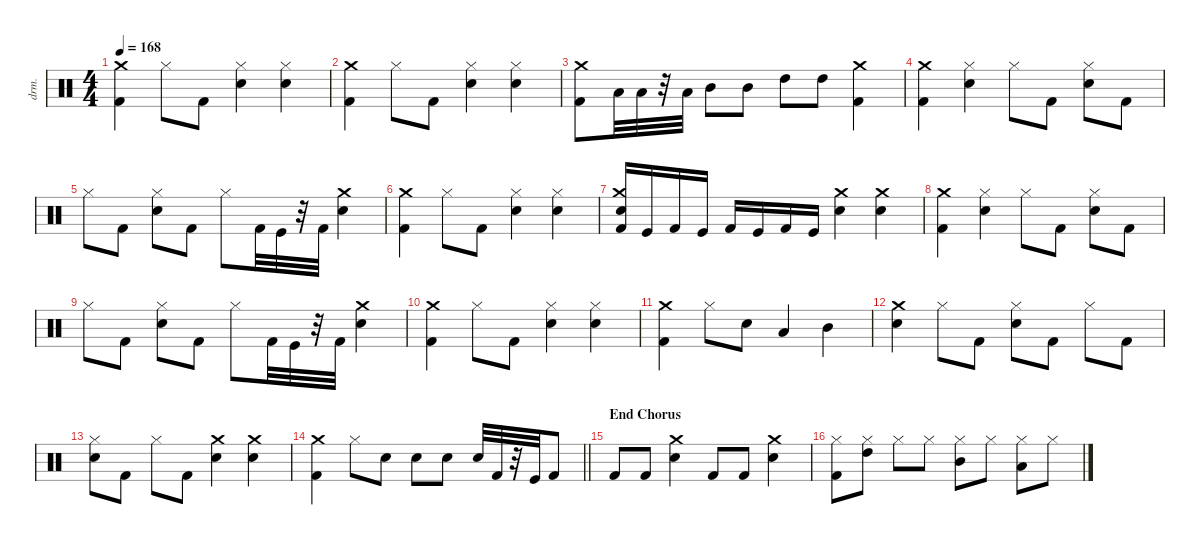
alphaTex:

\defaultSystemsLayout 4
\hideDynamics
\bracketExtendMode nobrackets
\otherSystemsTrackNameOrientation horizontal
\track ("Drums" "drm.") {instrument percussion}
\staff {score}
\articulation defaults
\ts (4 4)
\tempo 168
\clef neutral
\ks c
("Kick (hit) 2" "Crash medium (hit)").4{dy fff} "Hi-Hat (closed)".8 "Kick (hit) 2".8 ("Snare (hit) 2" "Hi-Hat (closed)").4 ("Hi-Hat (closed)" "Snare (hit) 2").4 |
("Kick (hit) 2" "Crash medium (hit)").4 "Hi-Hat (closed)".8 "Kick (hit) 2".8 ("Snare (hit) 2" "Hi-Hat (closed)").4 ("Hi-Hat (closed)" "Snare (hit) 2").4 |
("Kick (hit) 2" "Crash medium (hit)").8 "Low Tom (hit)".32 "Low Tom (hit)".32 r.32 "Low Tom (hit)".32 "Mid Tom (hit)".8 "Mid Tom (hit)".8 "High Tom (hit)".8 "High Tom (hit)".8 ("Crash medium (hit)" "Kick (hit) 2").4 |
("Kick (hit) 2" "Crash medium (hit)").4 ("Hi-Hat (closed)" "Snare (hit) 2").4 "Hi-Hat (closed)".8 "Kick (hit) 2".8 ("Snare (hit) 2" "Hi-Hat (closed)").8 "Kick (hit) 2".8 |
"Hi-Hat (closed)".8 "Kick (hit) 2".8 ("Snare (hit) 2" "Hi-Hat (closed)").8 "Kick (hit) 2".8 "Hi-Hat (closed)".8 "Kick (hit) 2".32 "Kick (hit)".32 r.32 "Kick (hit) 2".32 ("Crash medium (hit)" "Snare (hit) 2").4 |
("Kick (hit) 2" "Crash medium (hit)").4 "Hi-Hat (closed)".8 "Kick (hit) 2".8 ("Snare (hit) 2" "Hi-Hat (closed)").4 ("Hi-Hat (closed)" "Snare (hit) 2").4 |
("Kick (hit) 2" "Snare (hit) 2" "Crash medium (hit)").16 "Kick (hit)".16 "Kick (hit) 2".16 "Kick (hit)".16 "Kick (hit) 2".16 "Kick (hit)".16 "Kick (hit) 2".16 "Kick (hit)".16 ("Crash medium (hit)" "Snare (hit) 2").4 ("Crash medium (hit)" "Snare (hit) 2").4 |
("Kick (hit) 2" "Crash medium (hit)").4 ("Hi-Hat (closed)" "Snare (hit) 2").4 "Hi-Hat (closed)".8 "Kick (hit) 2".8 ("Snare (hit) 2" "Hi-Hat (closed)").8 "Kick (hit) 2".8 |
"Hi-Hat (closed)".8 "Kick (hit) 2".8 ("Snare (hit) 2" "Hi-Hat (closed)").8 "Kick (hit) 2".8 "Hi-Hat (closed)".8 "Kick (hit) 2".32 "Kick (hit)".32 r.32 "Kick (hit) 2".32 ("Crash medium (hit)" "Snare (hit) 2").4 |
("Kick (hit) 2" "Crash medium (hit)").4 "Hi-Hat (closed)".8 "Kick (hit) 2".8 ("Snare (hit) 2" "Hi-Hat (closed)").4 ("Hi-Hat (closed)" "Snare (hit) 2").4 |
("Kick (hit) 2" "Crash medium (hit)").4 "Hi-Hat (closed)".8 "Snare (hit) 2".8 "Low Tom (hit)".4 "Mid Tom (hit)".4 |
("Snare (hit) 2" "Crash medium (hit)").4 "Hi-Hat (closed)".8 "Kick (hit) 2".8 ("Snare (hit) 2" "Hi-Hat (closed)").8 "Kick (hit) 2".8 "Hi-Hat (closed)".8 "Kick (hit) 2".8 |
("Hi-Hat (closed)" "Snare (hit) 2").8 "Kick (hit) 2".8 "Hi-Hat (closed)".8 "Kick (hit) 2".8 ("Crash medium (hit)" "Snare (hit) 2").4 ("Crash medium (hit)" "Snare (hit) 2").4 |
\barLineRight lightlight
("Kick (hit) 2" "Crash medium (hit)").4 "Hi-Hat (closed)".8 "Snare (hit) 2".8 "Snare (hit) 2".8 "Snare (hit) 2".8 "Snare (hit) 2".32 "Kick (hit) 2".32 r.32 "Kick (hit)".32 "Kick (hit) 2".8 |
\section ("" "End Chorus")
"Kick (hit) 2".8 "Kick (hit) 2".8 ("Snare (hit) 2" "Crash medium (hit)").4 "Kick (hit) 2".8 "Kick (hit) 2".8 ("Crash medium (hit)" "Snare (hit) 2").4 |
("Hi-Hat (closed)" "Kick (hit) 2").8 ("High Tom (hit)" "Hi-Hat (closed)").8 "Hi-Hat (closed)".8 "Hi-Hat (closed)".8 ("Mid Tom (hit)" "Hi-Hat (closed)").8 "Hi-Hat (closed)".8 ("Low Tom (hit)" "Hi-Hat (closed)").8 "Hi-Hat (closed)".8
